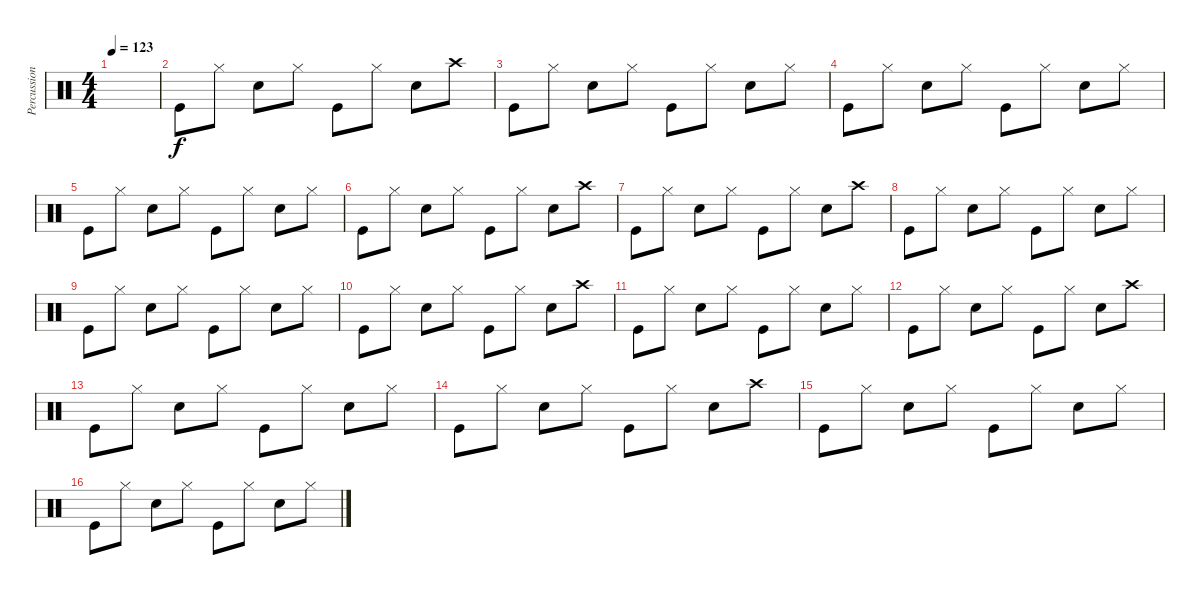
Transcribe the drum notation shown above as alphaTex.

\track ("Percussion" "Percussion") {instrument percussion}
\staff {score}
\articulation defaults
\ts (4 4)
\tempo 123
\clef neutral
\ks c
|
"Kick (hit)".8 "Hi-Hat (closed)".8 "Snare (hit) 2".8 "Hi-Hat (closed)".8 "Kick (hit)".8 "Hi-Hat (closed)".8 "Snare (hit) 2".8 "Crash high (hit)".8 |
"Kick (hit)".8 "Hi-Hat (closed)".8 "Snare (hit) 2".8 "Hi-Hat (closed)".8 "Kick (hit)".8 "Hi-Hat (closed)".8 "Snare (hit) 2".8 "Hi-Hat (closed)".8 |
"Kick (hit)".8 "Hi-Hat (closed)".8 "Snare (hit) 2".8 "Hi-Hat (closed)".8 "Kick (hit)".8 "Hi-Hat (closed)".8 "Snare (hit) 2".8 "Hi-Hat (closed)".8 |
"Kick (hit)".8 "Hi-Hat (closed)".8 "Snare (hit) 2".8 "Hi-Hat (closed)".8 "Kick (hit)".8 "Hi-Hat (closed)".8 "Snare (hit) 2".8 "Hi-Hat (closed)".8 |
"Kick (hit)".8 "Hi-Hat (closed)".8 "Snare (hit) 2".8 "Hi-Hat (closed)".8 "Kick (hit)".8 "Hi-Hat (closed)".8 "Snare (hit) 2".8 "Crash high (hit)".8 |
"Kick (hit)".8 "Hi-Hat (closed)".8 "Snare (hit) 2".8 "Hi-Hat (closed)".8 "Kick (hit)".8 "Hi-Hat (closed)".8 "Snare (hit) 2".8 "Crash high (hit)".8 |
"Kick (hit)".8 "Hi-Hat (closed)".8 "Snare (hit) 2".8 "Hi-Hat (closed)".8 "Kick (hit)".8 "Hi-Hat (closed)".8 "Snare (hit) 2".8 "Hi-Hat (closed)".8 |
"Kick (hit)".8 "Hi-Hat (closed)".8 "Snare (hit) 2".8 "Hi-Hat (closed)".8 "Kick (hit)".8 "Hi-Hat (closed)".8 "Snare (hit) 2".8 "Hi-Hat (closed)".8 |
"Kick (hit)".8 "Hi-Hat (closed)".8 "Snare (hit) 2".8 "Hi-Hat (closed)".8 "Kick (hit)".8 "Hi-Hat (closed)".8 "Snare (hit) 2".8 "Crash high (hit)".8 |
"Kick (hit)".8 "Hi-Hat (closed)".8 "Snare (hit) 2".8 "Hi-Hat (closed)".8 "Kick (hit)".8 "Hi-Hat (closed)".8 "Snare (hit) 2".8 "Hi-Hat (closed)".8 |
"Kick (hit)".8 "Hi-Hat (closed)".8 "Snare (hit) 2".8 "Hi-Hat (closed)".8 "Kick (hit)".8 "Hi-Hat (closed)".8 "Snare (hit) 2".8 "Crash high (hit)".8 |
"Kick (hit)".8 "Hi-Hat (closed)".8 "Snare (hit) 2".8 "Hi-Hat (closed)".8 "Kick (hit)".8 "Hi-Hat (closed)".8 "Snare (hit) 2".8 "Hi-Hat (closed)".8 |
"Kick (hit)".8 "Hi-Hat (closed)".8 "Snare (hit) 2".8 "Hi-Hat (closed)".8 "Kick (hit)".8 "Hi-Hat (closed)".8 "Snare (hit) 2".8 "Crash high (hit)".8 |
"Kick (hit)".8 "Hi-Hat (closed)".8 "Snare (hit) 2".8 "Hi-Hat (closed)".8 "Kick (hit)".8 "Hi-Hat (closed)".8 "Snare (hit) 2".8 "Hi-Hat (closed)".8 |
"Kick (hit)".8 "Hi-Hat (closed)".8 "Snare (hit) 2".8 "Hi-Hat (closed)".8 "Kick (hit)".8 "Hi-Hat (closed)".8 "Snare (hit) 2".8 "Hi-Hat (closed)".8
